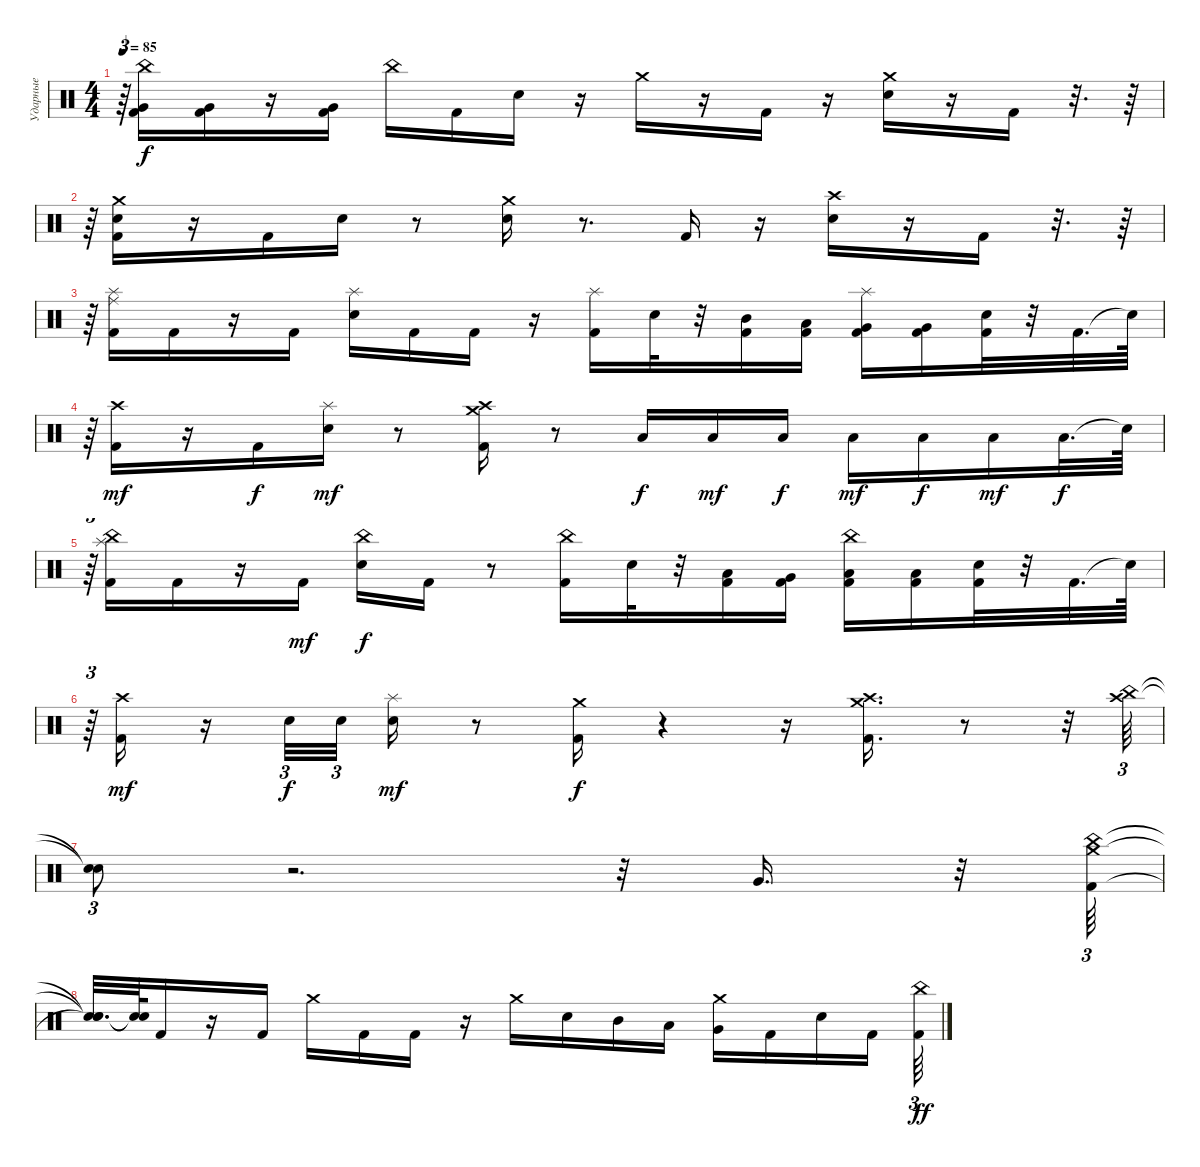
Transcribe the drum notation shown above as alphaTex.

\track ("Ударные" "Ударные") {instrument percussion}
\staff {score}
\articulation defaults
\ts (4 4)
\tempo 85
\clef neutral
\ks c
r.64{tu (3 2) dy f} ("China (hit)" "Kick (hit) 2" "Very Low Tom (hit)").16 ("Kick (hit) 2" "Very Low Tom (hit)").16 r.16 ("Very Low Tom (hit)" "Kick (hit) 2").16 "China (hit)".16 "Kick (hit) 2".16 "Snare (hit) 2".16 r.16 "Crash medium (hit)".16 r.16 "Kick (hit) 2".16 r.16 ("Crash medium (hit)" "Snare (hit) 2").16 r.16 "Kick (hit) 2".16 r.32{d} r.64 |
r.64{tu (3 2)} ("Crash medium (hit)" "Snare (hit) 2" "Kick (hit) 2").16 r.16 "Kick (hit) 2".16 "Snare (hit) 2".16 r.8 ("Crash medium (hit)" "Snare (hit) 2").16 r.8{d} "Kick (hit) 2".16 r.16 ("Crash high (hit)" "Snare (hit) 2").16 r.16 "Kick (hit) 2".16 r.32{d} r.64 |
r.64{tu (3 2)} ("Ride (middle)" "Kick (hit) 2" "Splash (hit)").16 "Kick (hit) 2".16 r.16 "Kick (hit) 2".16 ("Splash (hit)" "Snare (hit) 2").16 "Kick (hit) 2".16 "Kick (hit) 2".16 r.16 ("Splash (hit)" "Kick (hit) 2").16 "Electric Snare (hit)".32 r.32 ("Mid Tom (hit)" "Kick (hit) 2").16 ("Low Tom (hit)" "Kick (hit) 2").16 ("Splash (hit)" "Very Low Tom (hit)" "Kick (hit) 2").16 ("Very Low Tom (hit)" "Kick (hit) 2").16 ("Electric Snare (hit)" "Kick (hit) 2").32 r.32 "Kick (hit) 2".32{d} "Snare (hit)"{t}.64 |
r.64{tu (3 2)} ("Kick (hit) 2" "Crash high (hit)").16{dy mf} r.16 "Kick (hit) 2".16{dy f} ("Splash (hit)" "Snare (hit) 2").16{dy mf} r.8 ("Crash medium (hit)" "Kick (hit) 2" "Crash high (hit)").16 r.8 "Low Floor Tom (hit)".16{dy f} "Low Floor Tom (hit)".16{dy mf} "Low Floor Tom (hit)".16{dy f} "Low Floor Tom (hit)".16{dy mf} "Low Floor Tom (hit)".16{dy f} "Low Floor Tom (hit)".16{dy mf} "Low Floor Tom (hit)".32{d dy f} "Snare (hit)"{t}.64 |
r.64{tu (3 2)} ("China (hit)" "Splash (hit)" "Kick (hit) 2").16 "Kick (hit) 2".16 r.16 "Kick (hit) 2".16{dy mf} ("Snare (hit) 2" "China (hit)").16{dy f} "Kick (hit) 2".16 r.8 ("Kick (hit) 2" "China (hit)").16 "Electric Snare (hit)".32 r.32 ("Low Tom (hit)" "Kick (hit) 2").16 ("Very Low Tom (hit)" "Kick (hit) 2").16 ("Kick (hit) 2" "Low Floor Tom (hit)" "China (hit)").16 ("Low Floor Tom (hit)" "Kick (hit) 2").16 ("Electric Snare (hit)" "Kick (hit) 2").32 r.32 "Kick (hit) 2".32{d} "Snare (hit)"{t}.64 |
r.64{tu (3 2)} ("Crash high (hit)" "Kick (hit) 2").16{dy mf} r.16 "Snare (hit) 2".32{tu (3 2) dy f} "Snare (hit) 2".32{tu (3 2) beam splitsecondary} ("Splash (hit)" "Snare (hit) 2").16{dy mf} r.8 ("Crash medium (hit)" "Kick (hit) 2").16{dy f} r.4 r.16 ("Crash medium (hit)" "Crash high (hit)" "Kick (hit) 2").16{d} r.8 r.32 ("China (hit)" "Crash high (hit)").64{tu (3 2)} |
("Snare (hit)"{t} "Snare (hit)"{t}).8{tu (3 2)} r.2{d} r.32 "Very Low Tom (hit)".16{d} r.32 ("Crash medium (hit)" "China (hit)" "Kick (hit) 2").64{tu (3 2)} |
("Snare (hit)"{t} "Snare (hit)"{t} "Snare (hit)"{t}).32{d} ("Snare (hit)"{t} "Snare (hit)"{t}).64 "Kick (hit) 2".16 r.16 "Kick (hit) 2".16 "Crash medium (hit)".16 "Kick (hit) 2".16 "Kick (hit) 2".16 r.16 "Crash medium (hit)".16 "Snare (hit) 2".16 "Mid Tom (hit)".16 "Low Tom (hit)".16 ("Very Low Tom (hit)" "Crash medium (hit)").16 "Kick (hit) 2".16 "Snare (hit) 2".16 "Kick (hit) 2".16 ("China (hit)" "Kick (hit) 2").64{tu (3 2) dy ff}
